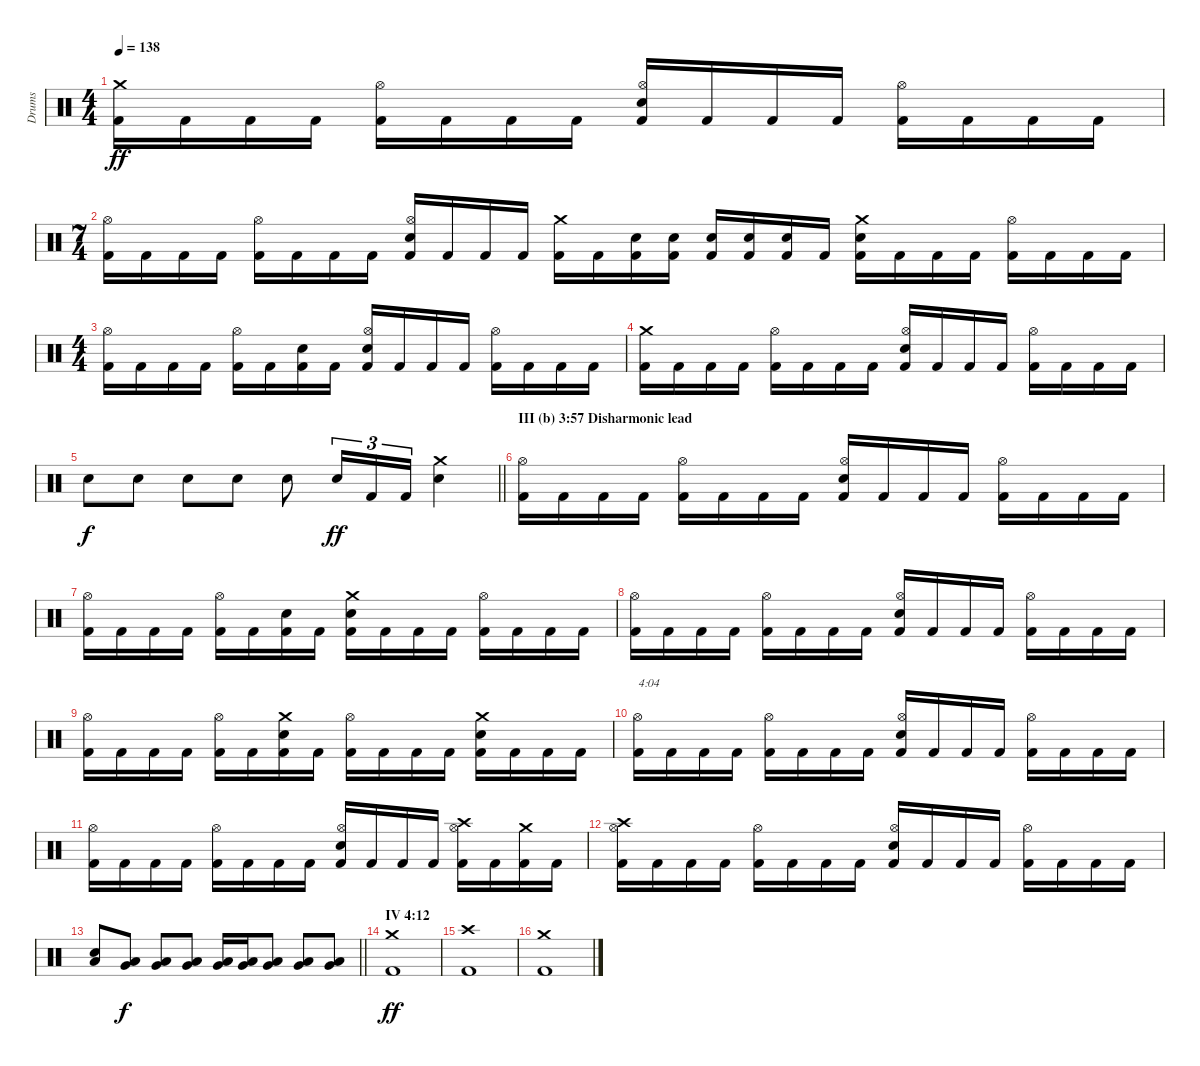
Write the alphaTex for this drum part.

\track ("Drums" "Drums") {instrument percussion}
\staff {score}
\articulation defaults
\ts (4 4)
\tempo 138
\clef neutral
\ks c
("Crash medium (hit)" "Kick (hit) 2").16{dy ff} "Kick (hit) 2".16 "Kick (hit) 2".16 "Kick (hit) 2".16 ("Hi-Hat (open)" "Kick (hit) 2").16 "Kick (hit) 2".16 "Kick (hit) 2".16 "Kick (hit) 2".16 ("Hi-Hat (open)" "Electric Snare (hit)" "Kick (hit) 2").16 "Kick (hit) 2".16 "Kick (hit) 2".16 "Kick (hit) 2".16 ("Hi-Hat (open)" "Kick (hit) 2").16 "Kick (hit) 2".16 "Kick (hit) 2".16 "Kick (hit) 2".16 |
\ts (7 4)
("Hi-Hat (open)" "Kick (hit) 2").16 "Kick (hit) 2".16 "Kick (hit) 2".16 "Kick (hit) 2".16 ("Hi-Hat (open)" "Kick (hit) 2").16 "Kick (hit) 2".16 "Kick (hit) 2".16 "Kick (hit) 2".16 ("Hi-Hat (open)" "Electric Snare (hit)" "Kick (hit) 2").16 "Kick (hit) 2".16 "Kick (hit) 2".16 "Kick (hit) 2".16 ("Crash medium (hit)" "Kick (hit) 2").16 "Kick (hit) 2".16 ("Electric Snare (hit)" "Kick (hit) 2").16 ("Electric Snare (hit)" "Kick (hit) 2").16 ("Electric Snare (hit)" "Kick (hit) 2").16 ("Electric Snare (hit)" "Kick (hit) 2").16 ("Electric Snare (hit)" "Kick (hit) 2").16 "Kick (hit) 2".16 ("Crash medium (hit)" "Electric Snare (hit)" "Kick (hit) 2").16 "Kick (hit) 2".16 "Kick (hit) 2".16 "Kick (hit) 2".16 ("Hi-Hat (open)" "Kick (hit) 2").16 "Kick (hit) 2".16 "Kick (hit) 2".16 "Kick (hit) 2".16 |
\ts (4 4)
("Hi-Hat (open)" "Kick (hit) 2").16 "Kick (hit) 2".16 "Kick (hit) 2".16 "Kick (hit) 2".16 ("Hi-Hat (open)" "Kick (hit) 2").16 "Kick (hit) 2".16 ("Electric Snare (hit)" "Kick (hit) 2").16 "Kick (hit) 2".16 ("Hi-Hat (open)" "Electric Snare (hit)" "Kick (hit) 2").16 "Kick (hit) 2".16 "Kick (hit) 2".16 "Kick (hit) 2".16 ("Hi-Hat (open)" "Kick (hit) 2").16 "Kick (hit) 2".16 "Kick (hit) 2".16 "Kick (hit) 2".16 |
("Crash medium (hit)" "Kick (hit) 2").16 "Kick (hit) 2".16 "Kick (hit) 2".16 "Kick (hit) 2".16 ("Hi-Hat (open)" "Kick (hit) 2").16 "Kick (hit) 2".16 "Kick (hit) 2".16 "Kick (hit) 2".16 ("Hi-Hat (open)" "Electric Snare (hit)" "Kick (hit) 2").16 "Kick (hit) 2".16 "Kick (hit) 2".16 "Kick (hit) 2".16 ("Hi-Hat (open)" "Kick (hit) 2").16 "Kick (hit) 2".16 "Kick (hit) 2".16 "Kick (hit) 2".16 |
\barLineRight lightlight "Electric Snare (hit)".8{dy f} "Electric Snare (hit)".8 "Electric Snare (hit)".8 "Electric Snare (hit)".8 "Electric Snare (hit)".8 "Electric Snare (hit)".16{tu (3 2) dy ff} "Kick (hit) 2".16{tu (3 2)} "Kick (hit) 2".16{tu (3 2)}
("Crash medium (hit)" "Electric Snare (hit)").4 |
\section ("" "III (b) 3:57 Disharmonic lead")
("Hi-Hat (open)" "Kick (hit) 2").16 "Kick (hit) 2".16 "Kick (hit) 2".16 "Kick (hit) 2".16 ("Hi-Hat (open)" "Kick (hit) 2").16 "Kick (hit) 2".16 "Kick (hit) 2".16 "Kick (hit) 2".16 ("Hi-Hat (open)" "Electric Snare (hit)" "Kick (hit) 2").16 "Kick (hit) 2".16 "Kick (hit) 2".16 "Kick (hit) 2".16 ("Hi-Hat (open)" "Kick (hit) 2").16 "Kick (hit) 2".16 "Kick (hit) 2".16 "Kick (hit) 2".16 |
("Hi-Hat (open)" "Kick (hit) 2").16 "Kick (hit) 2".16 "Kick (hit) 2".16 "Kick (hit) 2".16 ("Hi-Hat (open)" "Kick (hit) 2").16 "Kick (hit) 2".16 ("Electric Snare (hit)" "Kick (hit) 2").16 "Kick (hit) 2".16 ("Crash medium (hit)" "Electric Snare (hit)" "Kick (hit) 2").16 "Kick (hit) 2".16 "Kick (hit) 2".16 "Kick (hit) 2".16 ("Hi-Hat (open)" "Kick (hit) 2").16 "Kick (hit) 2".16 "Kick (hit) 2".16 "Kick (hit) 2".16 |
("Hi-Hat (open)" "Kick (hit) 2").16 "Kick (hit) 2".16 "Kick (hit) 2".16 "Kick (hit) 2".16 ("Hi-Hat (open)" "Kick (hit) 2").16 "Kick (hit) 2".16 "Kick (hit) 2".16 "Kick (hit) 2".16 ("Hi-Hat (open)" "Electric Snare (hit)" "Kick (hit) 2").16 "Kick (hit) 2".16 "Kick (hit) 2".16 "Kick (hit) 2".16 ("Hi-Hat (open)" "Kick (hit) 2").16 "Kick (hit) 2".16 "Kick (hit) 2".16 "Kick (hit) 2".16 |
("Hi-Hat (open)" "Kick (hit) 2").16 "Kick (hit) 2".16 "Kick (hit) 2".16 "Kick (hit) 2".16 ("Hi-Hat (open)" "Kick (hit) 2").16 "Kick (hit) 2".16 ("Crash medium (hit)" "Electric Snare (hit)" "Kick (hit) 2").16 "Kick (hit) 2".16 ("Hi-Hat (open)" "Kick (hit) 2").16 "Kick (hit) 2".16 "Kick (hit) 2".16 "Kick (hit) 2".16 ("Crash medium (hit)" "Electric Snare (hit)" "Kick (hit) 2").16 "Kick (hit) 2".16 "Kick (hit) 2".16 "Kick (hit) 2".16 |
("Hi-Hat (open)" "Kick (hit) 2").16{txt "4:04"} "Kick (hit) 2".16 "Kick (hit) 2".16 "Kick (hit) 2".16 ("Hi-Hat (open)" "Kick (hit) 2").16 "Kick (hit) 2".16 "Kick (hit) 2".16 "Kick (hit) 2".16 ("Hi-Hat (open)" "Electric Snare (hit)" "Kick (hit) 2").16 "Kick (hit) 2".16 "Kick (hit) 2".16 "Kick (hit) 2".16 ("Hi-Hat (open)" "Kick (hit) 2").16 "Kick (hit) 2".16 "Kick (hit) 2".16 "Kick (hit) 2".16 |
("Hi-Hat (open)" "Kick (hit) 2").16 "Kick (hit) 2".16 "Kick (hit) 2".16 "Kick (hit) 2".16 ("Hi-Hat (open)" "Kick (hit) 2").16 "Kick (hit) 2".16 "Kick (hit) 2".16 "Kick (hit) 2".16 ("Hi-Hat (open)" "Electric Snare (hit)" "Kick (hit) 2").16 "Kick (hit) 2".16 "Kick (hit) 2".16 "Kick (hit) 2".16 ("Crash high (hit)" "Hi-Hat (open)" "Kick (hit) 2").16 "Kick (hit) 2".16 ("Crash medium (hit)" "Kick (hit) 2").16 "Kick (hit) 2".16 |
("Crash high (hit)" "Hi-Hat (open)" "Kick (hit) 2").16 "Kick (hit) 2".16 "Kick (hit) 2".16 "Kick (hit) 2".16 ("Hi-Hat (open)" "Kick (hit) 2").16 "Kick (hit) 2".16 "Kick (hit) 2".16 "Kick (hit) 2".16 ("Hi-Hat (open)" "Electric Snare (hit)" "Kick (hit) 2").16 "Kick (hit) 2".16 "Kick (hit) 2".16 "Kick (hit) 2".16 ("Hi-Hat (open)" "Kick (hit) 2").16 "Kick (hit) 2".16 "Kick (hit) 2".16 "Kick (hit) 2".16 |
\barLineRight lightlight
("Electric Snare (hit)" "Low Tom (hit)").8 ("Low Tom (hit)" "Very Low Tom (hit)").8{dy f} ("Low Tom (hit)" "Very Low Tom (hit)").8 ("Low Tom (hit)" "Very Low Tom (hit)").8 ("Low Tom (hit)" "Very Low Tom (hit)").16 ("Low Tom (hit)" "Very Low Tom (hit)").16 ("Low Tom (hit)" "Very Low Tom (hit)").8 ("Low Tom (hit)" "Very Low Tom (hit)").8 ("Low Tom (hit)" "Very Low Tom (hit)").8 |
\section ("" "IV 4:12")
("Crash medium (hit)" "Kick (hit) 2").1{dy ff} |
("Crash high (hit)" "Kick (hit) 2").1 |
("Crash medium (hit)" "Kick (hit) 2").1
